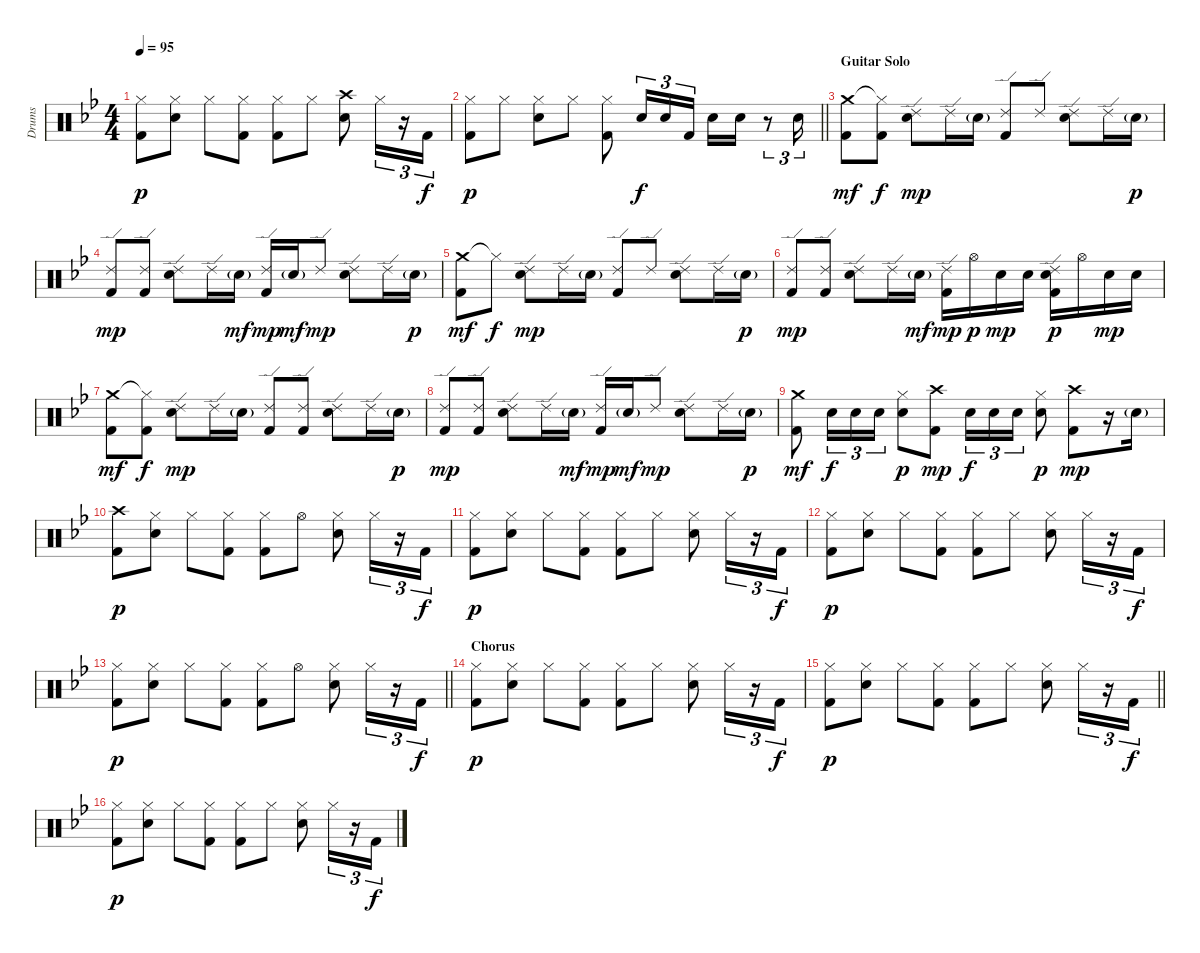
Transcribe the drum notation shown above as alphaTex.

\track ("Drums" "Drums") {instrument percussion}
\staff {score}
\articulation defaults
\ts (4 4)
\tempo 95
\clef neutral
\ks gminor
("Hi-Hat (closed)" "Kick (hit) 2").8{dy p} ("Hi-Hat (closed)" "Electric Snare (hit)").8 "Hi-Hat (closed)".8 ("Hi-Hat (closed)" "Kick (hit) 2").8 ("Hi-Hat (closed)" "Kick (hit) 2").8 "Hi-Hat (closed)".8 ("Crash high (hit)" "Electric Snare (hit)").8 "Hi-Hat (closed)".16{tu (3 2)} r.16{tu (3 2)} "Kick (hit) 2".16{tu (3 2) dy f} |
\barLineRight lightlight
("Hi-Hat (closed)" "Kick (hit) 2").8{dy p} "Hi-Hat (closed)".8 ("Hi-Hat (closed)" "Electric Snare (hit)").8 "Hi-Hat (closed)".8 ("Hi-Hat (closed)" "Kick (hit) 2").8 "Electric Snare (hit)".16{tu (3 2) dy f} "Electric Snare (hit)".16{tu (3 2)} "Kick (hit) 2".16{tu (3 2)} "Electric Snare (hit)".16 "Electric Snare (hit)".16 r.8{tu (3 2)} "Electric Snare (hit)".16{tu (3 2)} |
\section ("" "Guitar Solo")
("Crash medium (hit)" "Kick (hit) 2").8{dy mf} ("Hi-Hat (closed)"{t} "Kick (hit) 2").8{dy f} ("Ride (edge) 2" "Electric Snare (hit)").8{dy mp} "Ride (edge) 2".16 "Electric Snare (hit)"{g}.16 ("Ride (edge) 2" "Kick (hit) 2").8 "Ride (edge) 2".8 ("Ride (edge) 2" "Electric Snare (hit)").8 "Ride (edge) 2".16 "Electric Snare (hit)"{g}.16{dy p} |
("Ride (edge) 2" "Kick (hit) 2").8{dy mp} ("Ride (edge) 2" "Kick (hit) 2").8 ("Ride (edge) 2" "Electric Snare (hit)").8 "Ride (edge) 2".16 "Electric Snare (hit)"{g}.16{dy mf} ("Ride (edge) 2" "Kick (hit) 2").16{dy mp} "Electric Snare (hit)"{g}.16{dy mf} "Ride (edge) 2".8{dy mp} ("Ride (edge) 2" "Electric Snare (hit)").8 "Ride (edge) 2".16 "Electric Snare (hit)"{g}.16{dy p} |
("Crash medium (hit)" "Kick (hit) 2").8{dy mf} "Hi-Hat (closed)"{t}.8{dy f} ("Ride (edge) 2" "Electric Snare (hit)").8{dy mp} "Ride (edge) 2".16 "Electric Snare (hit)"{g}.16 ("Ride (edge) 2" "Kick (hit) 2").8 "Ride (edge) 2".8 ("Ride (edge) 2" "Electric Snare (hit)").8 "Ride (edge) 2".16 "Electric Snare (hit)"{g}.16{dy p} |
("Ride (edge) 2" "Kick (hit) 2").8{dy mp} ("Ride (edge) 2" "Kick (hit) 2").8 ("Ride (edge) 2" "Electric Snare (hit)").8 "Ride (edge) 2".16 "Electric Snare (hit)"{g}.16{dy mf} ("Ride (edge) 2" "Kick (hit) 2").16{dy mp} "Hi-Hat (open)".16{dy p} "Electric Snare (hit)".16{dy mp} "Electric Snare (hit)".16 ("Ride (edge) 2" "Electric Snare (hit)" "Kick (hit) 2").16{dy p} "Hi-Hat (open)".16 "Electric Snare (hit)".16{dy mp} "Electric Snare (hit)".16 |
("Crash medium (hit)" "Kick (hit) 2").8{dy mf} ("Hi-Hat (closed)"{t} "Kick (hit) 2").8{dy f} ("Ride (edge) 2" "Electric Snare (hit)").8{dy mp} "Ride (edge) 2".16 "Electric Snare (hit)"{g}.16 ("Ride (edge) 2" "Kick (hit) 2").8 ("Ride (edge) 2" "Kick (hit) 2").8 ("Ride (edge) 2" "Electric Snare (hit)").8 "Ride (edge) 2".16 "Electric Snare (hit)"{g}.16{dy p} |
("Ride (edge) 2" "Kick (hit) 2").8{dy mp} ("Ride (edge) 2" "Kick (hit) 2").8 ("Ride (edge) 2" "Electric Snare (hit)").8 "Ride (edge) 2".16 "Electric Snare (hit)"{g}.16{dy mf} ("Ride (edge) 2" "Kick (hit) 2").16{dy mp} "Electric Snare (hit)"{g}.16{dy mf} "Ride (edge) 2".8{dy mp} ("Ride (edge) 2" "Electric Snare (hit)").8 "Ride (edge) 2".16 "Electric Snare (hit)"{g}.16{dy p} |
("Crash medium (hit)" "Kick (hit) 2").8{dy mf} "Electric Snare (hit)".16{tu (3 2) dy f} "Electric Snare (hit)".16{tu (3 2)} "Electric Snare (hit)".16{tu (3 2)} ("Hi-Hat (closed)" "Electric Snare (hit)").8{dy p} ("Crash high (hit)" "Kick (hit) 2").8{dy mp} "Electric Snare (hit)".16{tu (3 2) dy f} "Electric Snare (hit)".16{tu (3 2)} "Electric Snare (hit)".16{tu (3 2)} ("Hi-Hat (closed)" "Electric Snare (hit)").8{dy p} ("Crash high (hit)" "Kick (hit) 2").8{dy mp} r.16 "Electric Snare (hit)"{g}.16 |
("Crash high (hit)" "Kick (hit) 2").8{dy p} ("Hi-Hat (closed)" "Electric Snare (hit)").8 "Hi-Hat (closed)".8 ("Hi-Hat (closed)" "Kick (hit) 2").8 ("Hi-Hat (closed)" "Kick (hit) 2").8 "Hi-Hat (open)".8 ("Hi-Hat (closed)" "Electric Snare (hit)").8 "Hi-Hat (closed)".16{tu (3 2)} r.16{tu (3 2)} "Kick (hit) 2".16{tu (3 2) dy f} |
("Hi-Hat (closed)" "Kick (hit) 2").8{dy p} ("Hi-Hat (closed)" "Electric Snare (hit)").8 "Hi-Hat (closed)".8 ("Hi-Hat (closed)" "Kick (hit) 2").8 ("Hi-Hat (closed)" "Kick (hit) 2").8 "Hi-Hat (closed)".8 ("Hi-Hat (closed)" "Electric Snare (hit)").8 "Hi-Hat (closed)".16{tu (3 2)} r.16{tu (3 2)} "Kick (hit) 2".16{tu (3 2) dy f} |
("Hi-Hat (closed)" "Kick (hit) 2").8{dy p} ("Hi-Hat (closed)" "Electric Snare (hit)").8 "Hi-Hat (closed)".8 ("Hi-Hat (closed)" "Kick (hit) 2").8 ("Hi-Hat (closed)" "Kick (hit) 2").8 "Hi-Hat (closed)".8 ("Hi-Hat (closed)" "Electric Snare (hit)").8 "Hi-Hat (closed)".16{tu (3 2)} r.16{tu (3 2)} "Kick (hit) 2".16{tu (3 2) dy f} |
\barLineRight lightlight
("Hi-Hat (closed)" "Kick (hit) 2").8{dy p} ("Hi-Hat (closed)" "Electric Snare (hit)").8 "Hi-Hat (closed)".8 ("Hi-Hat (closed)" "Kick (hit) 2").8 ("Hi-Hat (closed)" "Kick (hit) 2").8 "Hi-Hat (open)".8 ("Hi-Hat (closed)" "Electric Snare (hit)").8 "Hi-Hat (closed)".16{tu (3 2)} r.16{tu (3 2)} "Kick (hit) 2".16{tu (3 2) dy f} |
\section ("" "Chorus")
("Hi-Hat (closed)" "Kick (hit) 2").8{dy p} ("Hi-Hat (closed)" "Electric Snare (hit)").8 "Hi-Hat (closed)".8 ("Hi-Hat (closed)" "Kick (hit) 2").8 ("Hi-Hat (closed)" "Kick (hit) 2").8 "Hi-Hat (closed)".8 ("Hi-Hat (closed)" "Electric Snare (hit)").8 "Hi-Hat (closed)".16{tu (3 2)} r.16{tu (3 2)} "Kick (hit) 2".16{tu (3 2) dy f} |
\barLineRight lightlight
("Hi-Hat (closed)" "Kick (hit) 2").8{dy p} ("Hi-Hat (closed)" "Electric Snare (hit)").8 "Hi-Hat (closed)".8 ("Hi-Hat (closed)" "Kick (hit) 2").8 ("Hi-Hat (closed)" "Kick (hit) 2").8 "Hi-Hat (closed)".8 ("Hi-Hat (closed)" "Electric Snare (hit)").8 "Hi-Hat (closed)".16{tu (3 2)} r.16{tu (3 2)} "Kick (hit) 2".16{tu (3 2) dy f} |
("Hi-Hat (closed)" "Kick (hit) 2").8{dy p} ("Hi-Hat (closed)" "Electric Snare (hit)").8 "Hi-Hat (closed)".8 ("Hi-Hat (closed)" "Kick (hit) 2").8 ("Hi-Hat (closed)" "Kick (hit) 2").8 "Hi-Hat (closed)".8 ("Hi-Hat (closed)" "Electric Snare (hit)").8 "Hi-Hat (closed)".16{tu (3 2)} r.16{tu (3 2)} "Kick (hit) 2".16{tu (3 2) dy f}
